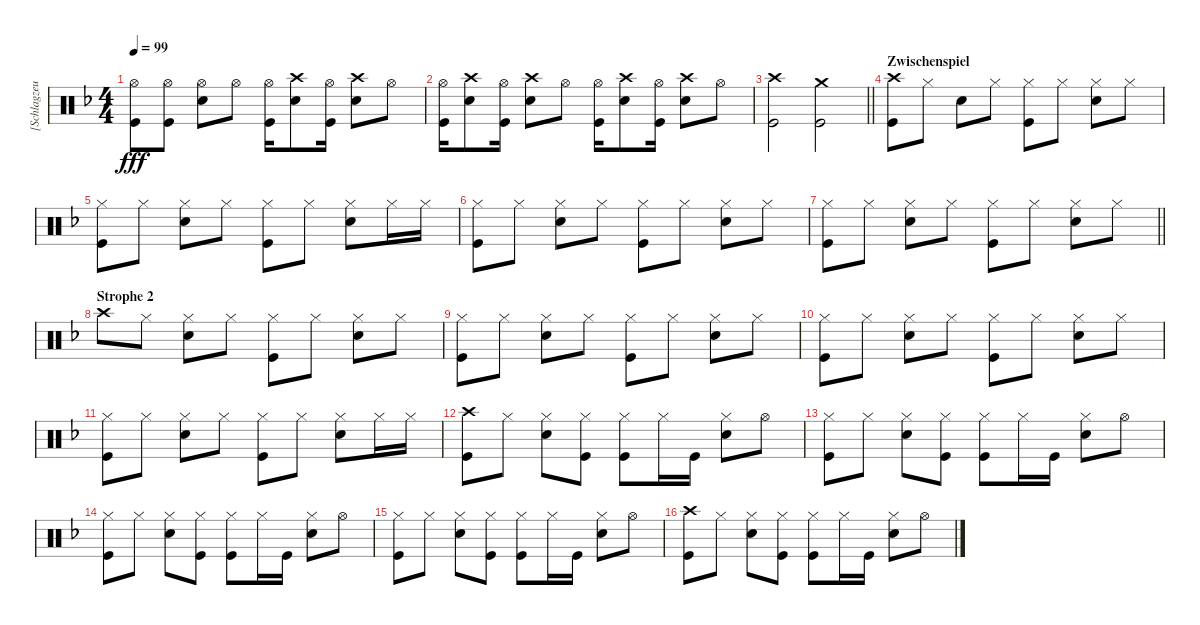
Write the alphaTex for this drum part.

\track ("[Schlagzeug]" "[Schlagzeu") {instrument percussion}
\staff {score}
\articulation defaults
\ts (4 4)
\tempo 99
\clef neutral
\ks dminor
("Hi-Hat (open)" "Kick (hit)").8{dy fff} ("Hi-Hat (open)" "Kick (hit)").8 ("Hi-Hat (open)" "Electric Snare (hit)").8 "Hi-Hat (open)".8 ("Hi-Hat (open)" "Kick (hit)").16 ("Crash high (hit)" "Electric Snare (hit)").8 ("Hi-Hat (open)" "Kick (hit)").16 ("Crash high (hit)" "Electric Snare (hit)").8 "Hi-Hat (open)".8 |
("Hi-Hat (open)" "Kick (hit)").16 ("Crash high (hit)" "Electric Snare (hit)").8 ("Hi-Hat (open)" "Kick (hit)").16 ("Crash high (hit)" "Electric Snare (hit)").8 "Hi-Hat (open)".8 ("Hi-Hat (open)" "Kick (hit)").16 ("Crash high (hit)" "Electric Snare (hit)").8 ("Hi-Hat (open)" "Kick (hit)").16 ("Crash high (hit)" "Electric Snare (hit)").8 "Hi-Hat (open)".8 |
\barLineRight lightlight
("Crash high (hit)" "Kick (hit)").2 ("Crash medium (hit)" "Kick (hit)").2 |
\section ("" "Zwischenspiel")
("Crash high (hit)" "Kick (hit)").8 "Hi-Hat (closed)".8 "Electric Snare (hit)".8 "Hi-Hat (closed)".8 ("Hi-Hat (closed)" "Kick (hit)").8 "Hi-Hat (closed)".8 ("Hi-Hat (closed)" "Electric Snare (hit)").8 "Hi-Hat (closed)".8 |
("Hi-Hat (closed)" "Kick (hit)").8 "Hi-Hat (closed)".8 ("Hi-Hat (closed)" "Electric Snare (hit)").8 "Hi-Hat (closed)".8 ("Hi-Hat (closed)" "Kick (hit)").8 "Hi-Hat (closed)".8 ("Hi-Hat (closed)" "Electric Snare (hit)").8 "Hi-Hat (closed)".16 "Hi-Hat (closed)".16 |
("Hi-Hat (closed)" "Kick (hit)").8 "Hi-Hat (closed)".8 ("Hi-Hat (closed)" "Electric Snare (hit)").8 "Hi-Hat (closed)".8 ("Hi-Hat (closed)" "Kick (hit)").8 "Hi-Hat (closed)".8 ("Hi-Hat (closed)" "Electric Snare (hit)").8 "Hi-Hat (closed)".8 |
\barLineRight lightlight
("Hi-Hat (closed)" "Kick (hit)").8 "Hi-Hat (closed)".8 ("Hi-Hat (closed)" "Electric Snare (hit)").8 "Hi-Hat (closed)".8 ("Hi-Hat (closed)" "Kick (hit)").8 "Hi-Hat (closed)".8 ("Hi-Hat (closed)" "Electric Snare (hit)").8 "Hi-Hat (closed)".8 |
\section ("" "Strophe 2")
"Crash high (hit)".8 "Hi-Hat (closed)".8 ("Hi-Hat (closed)" "Electric Snare (hit)").8 "Hi-Hat (closed)".8 ("Hi-Hat (closed)" "Kick (hit)").8 "Hi-Hat (closed)".8 ("Hi-Hat (closed)" "Electric Snare (hit)").8 "Hi-Hat (closed)".8 |
("Hi-Hat (closed)" "Kick (hit)").8 "Hi-Hat (closed)".8 ("Hi-Hat (closed)" "Electric Snare (hit)").8 "Hi-Hat (closed)".8 ("Hi-Hat (closed)" "Kick (hit)").8 "Hi-Hat (closed)".8 ("Hi-Hat (closed)" "Electric Snare (hit)").8 "Hi-Hat (closed)".8 |
("Hi-Hat (closed)" "Kick (hit)").8 "Hi-Hat (closed)".8 ("Hi-Hat (closed)" "Electric Snare (hit)").8 "Hi-Hat (closed)".8 ("Hi-Hat (closed)" "Kick (hit)").8 "Hi-Hat (closed)".8 ("Hi-Hat (closed)" "Electric Snare (hit)").8 "Hi-Hat (closed)".8 |
("Hi-Hat (closed)" "Kick (hit)").8 "Hi-Hat (closed)".8 ("Hi-Hat (closed)" "Electric Snare (hit)").8 "Hi-Hat (closed)".8 ("Hi-Hat (closed)" "Kick (hit)").8 "Hi-Hat (closed)".8 ("Hi-Hat (closed)" "Electric Snare (hit)").8 "Hi-Hat (closed)".16 "Hi-Hat (closed)".16 |
("Crash high (hit)" "Kick (hit)").8 "Hi-Hat (closed)".8 ("Hi-Hat (closed)" "Electric Snare (hit)").8 ("Hi-Hat (closed)" "Kick (hit)").8 ("Hi-Hat (closed)" "Kick (hit)").8 "Hi-Hat (closed)".16 "Kick (hit)".16 ("Hi-Hat (closed)" "Electric Snare (hit)").8 "Hi-Hat (open)".8 |
("Hi-Hat (closed)" "Kick (hit)").8 "Hi-Hat (closed)".8 ("Hi-Hat (closed)" "Electric Snare (hit)").8 ("Hi-Hat (closed)" "Kick (hit)").8 ("Hi-Hat (closed)" "Kick (hit)").8 "Hi-Hat (closed)".16 "Kick (hit)".16 ("Hi-Hat (closed)" "Electric Snare (hit)").8 "Hi-Hat (open)".8 |
("Hi-Hat (closed)" "Kick (hit)").8 "Hi-Hat (closed)".8 ("Hi-Hat (closed)" "Electric Snare (hit)").8 ("Hi-Hat (closed)" "Kick (hit)").8 ("Hi-Hat (closed)" "Kick (hit)").8 "Hi-Hat (closed)".16 "Kick (hit)".16 ("Hi-Hat (closed)" "Electric Snare (hit)").8 "Hi-Hat (open)".8 |
("Hi-Hat (closed)" "Kick (hit)").8 "Hi-Hat (closed)".8 ("Hi-Hat (closed)" "Electric Snare (hit)").8 ("Hi-Hat (closed)" "Kick (hit)").8 ("Hi-Hat (closed)" "Kick (hit)").8 "Hi-Hat (closed)".16 "Kick (hit)".16 ("Hi-Hat (closed)" "Electric Snare (hit)").8 "Hi-Hat (open)".8 |
("Crash high (hit)" "Kick (hit)").8 "Hi-Hat (closed)".8 ("Hi-Hat (closed)" "Electric Snare (hit)").8 ("Hi-Hat (closed)" "Kick (hit)").8 ("Hi-Hat (closed)" "Kick (hit)").8 "Hi-Hat (closed)".16 "Kick (hit)".16 ("Hi-Hat (closed)" "Electric Snare (hit)").8 "Hi-Hat (open)".8
